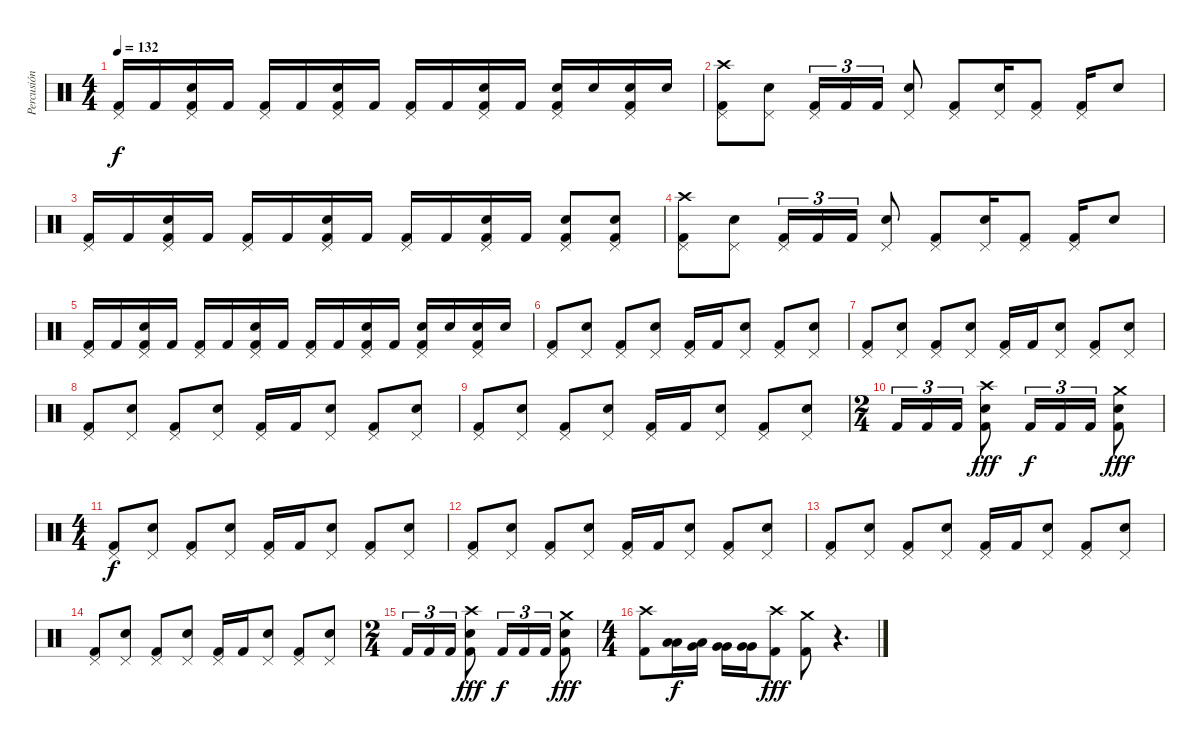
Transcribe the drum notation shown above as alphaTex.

\track ("Percusión" "Percusión") {instrument percussion}
\staff {score}
\articulation defaults
\ts (4 4)
\tempo 132
\clef neutral
\ks c
("Pedal Hi-Hat (hit)" "Kick (hit) 2").16{dy f} "Kick (hit) 2".16 ("Pedal Hi-Hat (hit)" "Electric Snare (hit)" "Kick (hit) 2").16 "Kick (hit) 2".16 ("Pedal Hi-Hat (hit)" "Kick (hit) 2").16 "Kick (hit) 2".16 ("Pedal Hi-Hat (hit)" "Electric Snare (hit)" "Kick (hit) 2").16 "Kick (hit) 2".16 ("Pedal Hi-Hat (hit)" "Kick (hit) 2").16 "Kick (hit) 2".16 ("Pedal Hi-Hat (hit)" "Electric Snare (hit)" "Kick (hit) 2").16 "Kick (hit) 2".16 ("Pedal Hi-Hat (hit)" "Electric Snare (hit)" "Kick (hit) 2").16 "Electric Snare (hit)".16 ("Pedal Hi-Hat (hit)" "Electric Snare (hit)" "Kick (hit) 2").16 "Electric Snare (hit)".16 |
("Pedal Hi-Hat (hit)" "Crash high (hit)" "Kick (hit) 2").8 ("Pedal Hi-Hat (hit)" "Electric Snare (hit)").8 ("Pedal Hi-Hat (hit)" "Kick (hit) 2").16{tu (3 2)} "Kick (hit) 2".16{tu (3 2)} "Kick (hit) 2".16{tu (3 2)} ("Pedal Hi-Hat (hit)" "Electric Snare (hit)").8 ("Pedal Hi-Hat (hit)" "Kick (hit) 2").8 ("Pedal Hi-Hat (hit)" "Electric Snare (hit)").16 ("Pedal Hi-Hat (hit)" "Kick (hit) 2").8 ("Pedal Hi-Hat (hit)" "Kick (hit) 2").16 "Electric Snare (hit)".8 |
("Pedal Hi-Hat (hit)" "Kick (hit) 2").16 "Kick (hit) 2".16 ("Pedal Hi-Hat (hit)" "Electric Snare (hit)" "Kick (hit) 2").16 "Kick (hit) 2".16 ("Pedal Hi-Hat (hit)" "Kick (hit) 2").16 "Kick (hit) 2".16 ("Pedal Hi-Hat (hit)" "Electric Snare (hit)" "Kick (hit) 2").16 "Kick (hit) 2".16 ("Pedal Hi-Hat (hit)" "Kick (hit) 2").16 "Kick (hit) 2".16 ("Pedal Hi-Hat (hit)" "Electric Snare (hit)" "Kick (hit) 2").16 "Kick (hit) 2".16 ("Pedal Hi-Hat (hit)" "Electric Snare (hit)" "Kick (hit) 2").8 ("Pedal Hi-Hat (hit)" "Electric Snare (hit)" "Kick (hit) 2").8 |
("Pedal Hi-Hat (hit)" "Crash high (hit)" "Kick (hit) 2").8 ("Pedal Hi-Hat (hit)" "Electric Snare (hit)").8 ("Pedal Hi-Hat (hit)" "Kick (hit) 2").16{tu (3 2)} "Kick (hit) 2".16{tu (3 2)} "Kick (hit) 2".16{tu (3 2)} ("Pedal Hi-Hat (hit)" "Electric Snare (hit)").8 ("Pedal Hi-Hat (hit)" "Kick (hit) 2").8 ("Pedal Hi-Hat (hit)" "Electric Snare (hit)").16 ("Pedal Hi-Hat (hit)" "Kick (hit) 2").8 ("Pedal Hi-Hat (hit)" "Kick (hit) 2").16 "Electric Snare (hit)".8 |
("Pedal Hi-Hat (hit)" "Kick (hit) 2").16 "Kick (hit) 2".16 ("Pedal Hi-Hat (hit)" "Electric Snare (hit)" "Kick (hit) 2").16 "Kick (hit) 2".16 ("Pedal Hi-Hat (hit)" "Kick (hit) 2").16 "Kick (hit) 2".16 ("Pedal Hi-Hat (hit)" "Electric Snare (hit)" "Kick (hit) 2").16 "Kick (hit) 2".16 ("Pedal Hi-Hat (hit)" "Kick (hit) 2").16 "Kick (hit) 2".16 ("Pedal Hi-Hat (hit)" "Electric Snare (hit)" "Kick (hit) 2").16 "Kick (hit) 2".16 ("Pedal Hi-Hat (hit)" "Electric Snare (hit)" "Kick (hit) 2").16 "Electric Snare (hit)".16 ("Pedal Hi-Hat (hit)" "Electric Snare (hit)" "Kick (hit) 2").16 "Electric Snare (hit)".16 |
("Pedal Hi-Hat (hit)" "Kick (hit) 2").8 ("Pedal Hi-Hat (hit)" "Electric Snare (hit)").8 ("Pedal Hi-Hat (hit)" "Kick (hit) 2").8 ("Pedal Hi-Hat (hit)" "Electric Snare (hit)").8 ("Pedal Hi-Hat (hit)" "Kick (hit) 2").16 "Kick (hit) 2".16 ("Pedal Hi-Hat (hit)" "Electric Snare (hit)").8 ("Pedal Hi-Hat (hit)" "Kick (hit) 2").8 ("Pedal Hi-Hat (hit)" "Electric Snare (hit)").8 |
("Pedal Hi-Hat (hit)" "Kick (hit) 2").8 ("Pedal Hi-Hat (hit)" "Electric Snare (hit)").8 ("Pedal Hi-Hat (hit)" "Kick (hit) 2").8 ("Pedal Hi-Hat (hit)" "Electric Snare (hit)").8 ("Pedal Hi-Hat (hit)" "Kick (hit) 2").16 "Kick (hit) 2".16 ("Pedal Hi-Hat (hit)" "Electric Snare (hit)").8 ("Pedal Hi-Hat (hit)" "Kick (hit) 2").8 ("Pedal Hi-Hat (hit)" "Electric Snare (hit)").8 |
("Pedal Hi-Hat (hit)" "Kick (hit) 2").8 ("Pedal Hi-Hat (hit)" "Electric Snare (hit)").8 ("Pedal Hi-Hat (hit)" "Kick (hit) 2").8 ("Pedal Hi-Hat (hit)" "Electric Snare (hit)").8 ("Pedal Hi-Hat (hit)" "Kick (hit) 2").16 "Kick (hit) 2".16 ("Pedal Hi-Hat (hit)" "Electric Snare (hit)").8 ("Pedal Hi-Hat (hit)" "Kick (hit) 2").8 ("Pedal Hi-Hat (hit)" "Electric Snare (hit)").8 |
("Pedal Hi-Hat (hit)" "Kick (hit) 2").8 ("Pedal Hi-Hat (hit)" "Electric Snare (hit)").8 ("Pedal Hi-Hat (hit)" "Kick (hit) 2").8 ("Pedal Hi-Hat (hit)" "Electric Snare (hit)").8 ("Pedal Hi-Hat (hit)" "Kick (hit) 2").16 "Kick (hit) 2".16 ("Pedal Hi-Hat (hit)" "Electric Snare (hit)").8 ("Pedal Hi-Hat (hit)" "Kick (hit) 2").8 ("Pedal Hi-Hat (hit)" "Electric Snare (hit)").8 |
\ts (2 4)
"Kick (hit) 2".16{tu (3 2)} "Kick (hit) 2".16{tu (3 2)} "Kick (hit) 2".16{tu (3 2)} ("Crash high (hit)" "Electric Snare (hit)" "Kick (hit) 2").8{dy fff} "Kick (hit) 2".16{tu (3 2) dy f} "Kick (hit) 2".16{tu (3 2)} "Kick (hit) 2".16{tu (3 2)} ("Crash medium (hit)" "Electric Snare (hit)" "Kick (hit) 2").8{dy fff} |
\ts (4 4)
("Pedal Hi-Hat (hit)" "Kick (hit) 2").8{dy f} ("Pedal Hi-Hat (hit)" "Electric Snare (hit)").8 ("Pedal Hi-Hat (hit)" "Kick (hit) 2").8 ("Pedal Hi-Hat (hit)" "Electric Snare (hit)").8 ("Pedal Hi-Hat (hit)" "Kick (hit) 2").16 "Kick (hit) 2".16 ("Pedal Hi-Hat (hit)" "Electric Snare (hit)").8 ("Pedal Hi-Hat (hit)" "Kick (hit) 2").8 ("Pedal Hi-Hat (hit)" "Electric Snare (hit)").8 |
("Pedal Hi-Hat (hit)" "Kick (hit) 2").8 ("Pedal Hi-Hat (hit)" "Electric Snare (hit)").8 ("Pedal Hi-Hat (hit)" "Kick (hit) 2").8 ("Pedal Hi-Hat (hit)" "Electric Snare (hit)").8 ("Pedal Hi-Hat (hit)" "Kick (hit) 2").16 "Kick (hit) 2".16 ("Pedal Hi-Hat (hit)" "Electric Snare (hit)").8 ("Pedal Hi-Hat (hit)" "Kick (hit) 2").8 ("Pedal Hi-Hat (hit)" "Electric Snare (hit)").8 |
("Pedal Hi-Hat (hit)" "Kick (hit) 2").8 ("Pedal Hi-Hat (hit)" "Electric Snare (hit)").8 ("Pedal Hi-Hat (hit)" "Kick (hit) 2").8 ("Pedal Hi-Hat (hit)" "Electric Snare (hit)").8 ("Pedal Hi-Hat (hit)" "Kick (hit) 2").16 "Kick (hit) 2".16 ("Pedal Hi-Hat (hit)" "Electric Snare (hit)").8 ("Pedal Hi-Hat (hit)" "Kick (hit) 2").8 ("Pedal Hi-Hat (hit)" "Electric Snare (hit)").8 |
("Pedal Hi-Hat (hit)" "Kick (hit) 2").8 ("Pedal Hi-Hat (hit)" "Electric Snare (hit)").8 ("Pedal Hi-Hat (hit)" "Kick (hit) 2").8 ("Pedal Hi-Hat (hit)" "Electric Snare (hit)").8 ("Pedal Hi-Hat (hit)" "Kick (hit) 2").16 "Kick (hit) 2".16 ("Pedal Hi-Hat (hit)" "Electric Snare (hit)").8 ("Pedal Hi-Hat (hit)" "Kick (hit) 2").8 ("Pedal Hi-Hat (hit)" "Electric Snare (hit)").8 |
\ts (2 4)
"Kick (hit) 2".16{tu (3 2)} "Kick (hit) 2".16{tu (3 2)} "Kick (hit) 2".16{tu (3 2)} ("Crash high (hit)" "Electric Snare (hit)" "Kick (hit) 2").8{dy fff} "Kick (hit) 2".16{tu (3 2) dy f} "Kick (hit) 2".16{tu (3 2)} "Kick (hit) 2".16{tu (3 2)} ("Crash medium (hit)" "Electric Snare (hit)" "Kick (hit) 2").8{dy fff} |
\ts (4 4)
("Crash high (hit)" "Kick (hit) 2").8 ("Low Tom (hit)" "Low Tom (hit)").16{dy f} ("Very Low Tom (hit)" "Low Tom (hit)").16 ("Very Low Tom (hit)" "Very Low Tom (hit)").16 ("Very Low Tom (hit)" "Very Low Tom (hit)").16 ("Crash high (hit)" "Kick (hit) 2").8{dy fff} ("Crash medium (hit)" "Kick (hit) 2").8 r.4{d}
